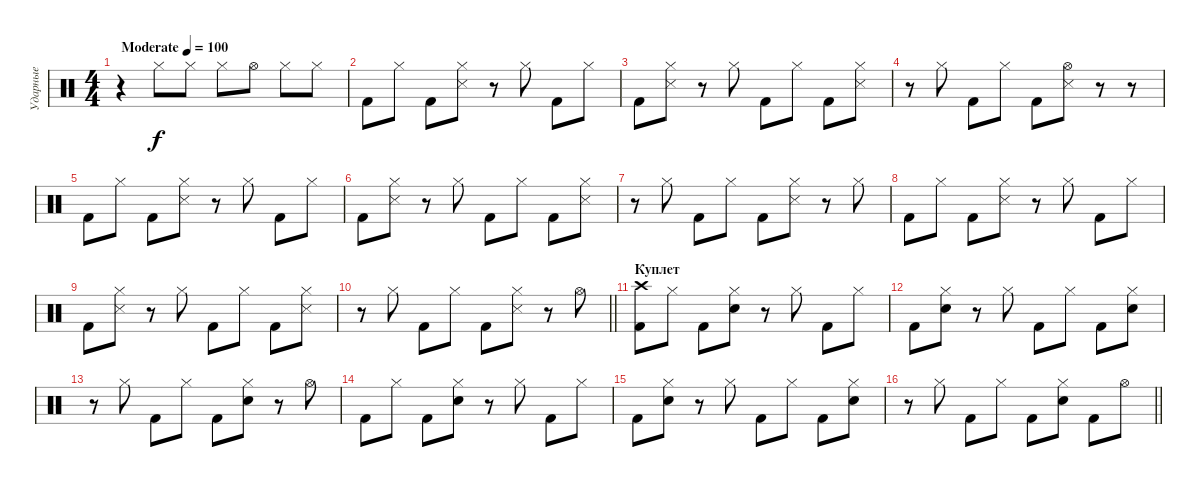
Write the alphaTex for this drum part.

\track ("Ударные" "Ударные") {instrument percussion}
\staff {score}
\articulation defaults
\ts (4 4)
\tempo (100 "Moderate")
\clef neutral
\ks c
r.4{dy f} "Hi-Hat (closed)".8 "Hi-Hat (closed)".8 "Hi-Hat (closed)".8 "Hi-Hat (open)".8 "Hi-Hat (closed)".8 "Hi-Hat (closed)".8 |
"Kick (hit) 2".8 "Hi-Hat (closed)".8 "Kick (hit) 2".8 ("Snare (side stick) 3" "Hi-Hat (closed)").8 r.8 "Hi-Hat (closed)".8 "Kick (hit) 2".8 "Hi-Hat (closed)".8 |
"Kick (hit) 2".8 ("Snare (side stick) 3" "Hi-Hat (closed)").8 r.8 "Hi-Hat (closed)".8 "Kick (hit) 2".8 "Hi-Hat (closed)".8 "Kick (hit) 2".8 ("Snare (side stick) 3" "Hi-Hat (closed)").8 |
r.8 "Hi-Hat (closed)".8 "Kick (hit) 2".8 "Hi-Hat (closed)".8 "Kick (hit) 2".8 ("Snare (side stick) 3" "Hi-Hat (open)").8 r.8 r.8 |
"Kick (hit) 2".8 "Hi-Hat (closed)".8 "Kick (hit) 2".8 ("Snare (side stick) 3" "Hi-Hat (closed)").8 r.8 "Hi-Hat (closed)".8 "Kick (hit) 2".8 "Hi-Hat (closed)".8 |
"Kick (hit) 2".8 ("Snare (side stick) 3" "Hi-Hat (closed)").8 r.8 "Hi-Hat (closed)".8 "Kick (hit) 2".8 "Hi-Hat (closed)".8 "Kick (hit) 2".8 ("Snare (side stick) 3" "Hi-Hat (closed)").8 |
r.8 "Hi-Hat (closed)".8 "Kick (hit) 2".8 "Hi-Hat (closed)".8 "Kick (hit) 2".8 ("Snare (side stick) 3" "Hi-Hat (closed)").8 r.8 "Hi-Hat (closed)".8 |
"Kick (hit) 2".8 "Hi-Hat (closed)".8 "Kick (hit) 2".8 ("Snare (side stick) 3" "Hi-Hat (closed)").8 r.8 "Hi-Hat (closed)".8 "Kick (hit) 2".8 "Hi-Hat (closed)".8 |
"Kick (hit) 2".8 ("Snare (side stick) 3" "Hi-Hat (closed)").8 r.8 "Hi-Hat (closed)".8 "Kick (hit) 2".8 "Hi-Hat (closed)".8 "Kick (hit) 2".8 ("Snare (side stick) 3" "Hi-Hat (closed)").8 |
\barLineRight lightlight
r.8 "Hi-Hat (closed)".8 "Kick (hit) 2".8 "Hi-Hat (closed)".8 "Kick (hit) 2".8 ("Snare (side stick) 3" "Hi-Hat (closed)").8 r.8 "Hi-Hat (open)".8 |
\section ("" "Куплет")
("Kick (hit) 2" "Crash high (hit)").8 "Hi-Hat (closed)".8 "Kick (hit) 2".8 ("Snare (hit) 2" "Hi-Hat (closed)").8 r.8 "Hi-Hat (closed)".8 "Kick (hit) 2".8 "Hi-Hat (closed)".8 |
"Kick (hit) 2".8 ("Snare (hit) 2" "Hi-Hat (closed)").8 r.8 "Hi-Hat (closed)".8 "Kick (hit) 2".8 "Hi-Hat (closed)".8 "Kick (hit) 2".8 ("Snare (hit) 2" "Hi-Hat (closed)").8 |
r.8 "Hi-Hat (closed)".8 "Kick (hit) 2".8 "Hi-Hat (closed)".8 "Kick (hit) 2".8 ("Snare (hit) 2" "Hi-Hat (closed)").8 r.8 "Hi-Hat (open)".8 |
"Kick (hit) 2".8 "Hi-Hat (closed)".8 "Kick (hit) 2".8 ("Snare (hit) 2" "Hi-Hat (closed)").8 r.8 "Hi-Hat (closed)".8 "Kick (hit) 2".8 "Hi-Hat (closed)".8 |
"Kick (hit) 2".8 ("Snare (hit) 2" "Hi-Hat (closed)").8 r.8 "Hi-Hat (closed)".8 "Kick (hit) 2".8 "Hi-Hat (closed)".8 "Kick (hit) 2".8 ("Snare (hit) 2" "Hi-Hat (closed)").8 |
\barLineRight lightlight
r.8 "Hi-Hat (closed)".8 "Kick (hit) 2".8 "Hi-Hat (closed)".8 "Kick (hit) 2".8 ("Snare (hit) 2" "Hi-Hat (closed)").8 "Kick (hit) 2".8 "Hi-Hat (open)".8
